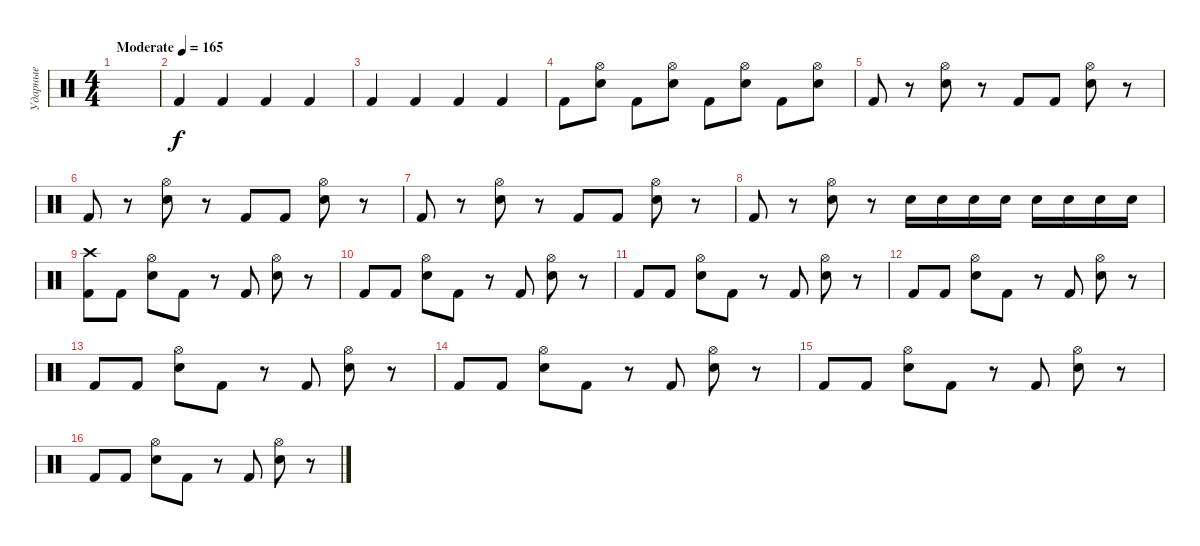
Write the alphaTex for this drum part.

\track ("Ударные" "Ударные") {instrument percussion}
\staff {score}
\articulation defaults
\ts (4 4)
\tempo (165 "Moderate")
\clef neutral
\ks c
|
"Kick (hit) 2".4 "Kick (hit) 2".4 "Kick (hit) 2".4 "Kick (hit) 2".4 |
"Kick (hit) 2".4 "Kick (hit) 2".4 "Kick (hit) 2".4 "Kick (hit) 2".4 |
"Kick (hit) 2".8 ("Hi-Hat (open)" "Electric Snare (hit)").8 "Kick (hit) 2".8 ("Hi-Hat (open)" "Electric Snare (hit)").8 "Kick (hit) 2".8 ("Hi-Hat (open)" "Electric Snare (hit)").8 "Kick (hit) 2".8 ("Hi-Hat (open)" "Electric Snare (hit)").8 |
"Kick (hit) 2".8 r.8 ("Hi-Hat (open)" "Electric Snare (hit)").8 r.8 "Kick (hit) 2".8 "Kick (hit) 2".8 ("Hi-Hat (open)" "Electric Snare (hit)").8 r.8 |
"Kick (hit) 2".8 r.8 ("Hi-Hat (open)" "Electric Snare (hit)").8 r.8 "Kick (hit) 2".8 "Kick (hit) 2".8 ("Hi-Hat (open)" "Electric Snare (hit)").8 r.8 |
"Kick (hit) 2".8 r.8 ("Hi-Hat (open)" "Electric Snare (hit)").8 r.8 "Kick (hit) 2".8 "Kick (hit) 2".8 ("Hi-Hat (open)" "Electric Snare (hit)").8 r.8 |
"Kick (hit) 2".8 r.8 ("Hi-Hat (open)" "Electric Snare (hit)").8 r.8 "Electric Snare (hit)".16 "Electric Snare (hit)".16 "Electric Snare (hit)".16 "Electric Snare (hit)".16 "Electric Snare (hit)".16 "Electric Snare (hit)".16 "Electric Snare (hit)".16 "Electric Snare (hit)".16 |
("Crash high (hit)" "Kick (hit) 2").8 "Kick (hit) 2".8 ("Hi-Hat (open)" "Electric Snare (hit)").8 "Kick (hit) 2".8 r.8 "Kick (hit) 2".8 ("Hi-Hat (open)" "Electric Snare (hit)").8 r.8 |
"Kick (hit) 2".8 "Kick (hit) 2".8 ("Hi-Hat (open)" "Electric Snare (hit)").8 "Kick (hit) 2".8 r.8 "Kick (hit) 2".8 ("Hi-Hat (open)" "Electric Snare (hit)").8 r.8 |
"Kick (hit) 2".8 "Kick (hit) 2".8 ("Hi-Hat (open)" "Electric Snare (hit)").8 "Kick (hit) 2".8 r.8 "Kick (hit) 2".8 ("Hi-Hat (open)" "Electric Snare (hit)").8 r.8 |
"Kick (hit) 2".8 "Kick (hit) 2".8 ("Hi-Hat (open)" "Electric Snare (hit)").8 "Kick (hit) 2".8 r.8 "Kick (hit) 2".8 ("Hi-Hat (open)" "Electric Snare (hit)").8 r.8 |
"Kick (hit) 2".8 "Kick (hit) 2".8 ("Hi-Hat (open)" "Electric Snare (hit)").8 "Kick (hit) 2".8 r.8 "Kick (hit) 2".8 ("Hi-Hat (open)" "Electric Snare (hit)").8 r.8 |
"Kick (hit) 2".8 "Kick (hit) 2".8 ("Hi-Hat (open)" "Electric Snare (hit)").8 "Kick (hit) 2".8 r.8 "Kick (hit) 2".8 ("Hi-Hat (open)" "Electric Snare (hit)").8 r.8 |
"Kick (hit) 2".8 "Kick (hit) 2".8 ("Hi-Hat (open)" "Electric Snare (hit)").8 "Kick (hit) 2".8 r.8 "Kick (hit) 2".8 ("Hi-Hat (open)" "Electric Snare (hit)").8 r.8 |
"Kick (hit) 2".8 "Kick (hit) 2".8 ("Hi-Hat (open)" "Electric Snare (hit)").8 "Kick (hit) 2".8 r.8 "Kick (hit) 2".8 ("Hi-Hat (open)" "Electric Snare (hit)").8 r.8
